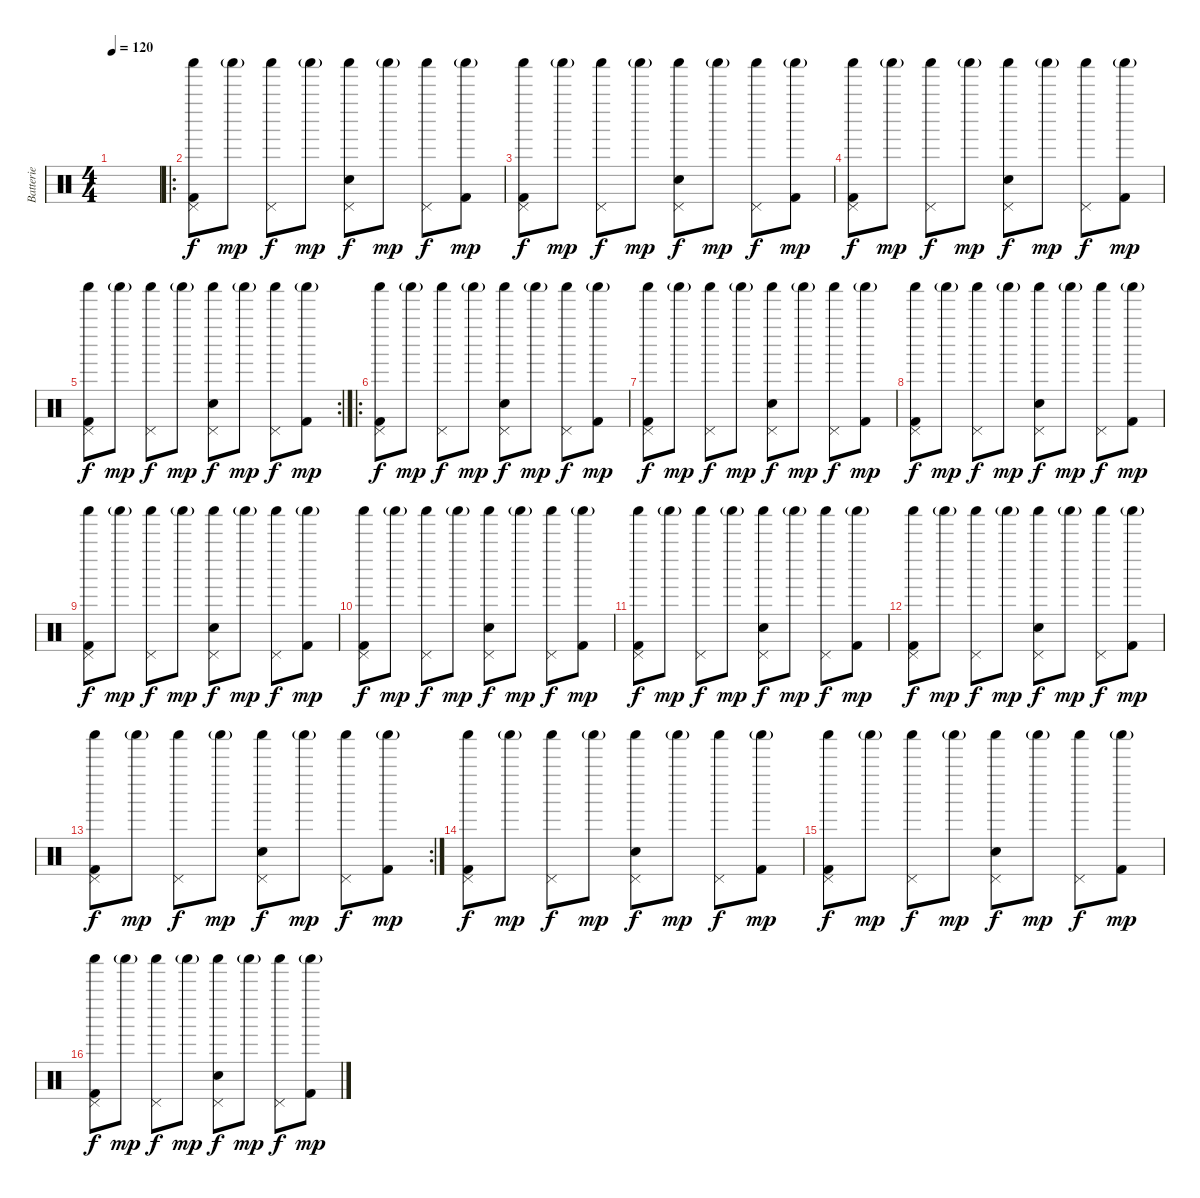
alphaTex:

\track ("Batterie" "Batterie") {instrument percussion}
\staff {score}
\articulation defaults
\ts (4 4)
\tempo 120
\clef neutral
\ks c
|
\ro
("Kick (hit) 2" "Shaker (hit)" "Pedal Hi-Hat (hit)").8 "Shaker (hit)"{g}.8{dy mp} ("Shaker (hit)" "Pedal Hi-Hat (hit)").8{dy f} "Shaker (hit)"{g}.8{dy mp} ("Electric Snare (hit)" "Shaker (hit)" "Pedal Hi-Hat (hit)").8{dy f} "Shaker (hit)"{g}.8{dy mp} ("Shaker (hit)" "Pedal Hi-Hat (hit)").8{dy f} ("Kick (hit) 2" "Shaker (hit)"{g}).8{dy mp} |
("Kick (hit) 2" "Shaker (hit)" "Pedal Hi-Hat (hit)").8{dy f} "Shaker (hit)"{g}.8{dy mp} ("Shaker (hit)" "Pedal Hi-Hat (hit)").8{dy f} "Shaker (hit)"{g}.8{dy mp} ("Electric Snare (hit)" "Shaker (hit)" "Pedal Hi-Hat (hit)").8{dy f} "Shaker (hit)"{g}.8{dy mp} ("Shaker (hit)" "Pedal Hi-Hat (hit)").8{dy f} ("Kick (hit) 2" "Shaker (hit)"{g}).8{dy mp} |
("Kick (hit) 2" "Shaker (hit)" "Pedal Hi-Hat (hit)").8{dy f} "Shaker (hit)"{g}.8{dy mp} ("Shaker (hit)" "Pedal Hi-Hat (hit)").8{dy f} "Shaker (hit)"{g}.8{dy mp} ("Electric Snare (hit)" "Shaker (hit)" "Pedal Hi-Hat (hit)").8{dy f} "Shaker (hit)"{g}.8{dy mp} ("Shaker (hit)" "Pedal Hi-Hat (hit)").8{dy f} ("Kick (hit) 2" "Shaker (hit)"{g}).8{dy mp} |
\rc 2
("Kick (hit) 2" "Shaker (hit)" "Pedal Hi-Hat (hit)").8{dy f} "Shaker (hit)"{g}.8{dy mp} ("Shaker (hit)" "Pedal Hi-Hat (hit)").8{dy f} "Shaker (hit)"{g}.8{dy mp} ("Electric Snare (hit)" "Shaker (hit)" "Pedal Hi-Hat (hit)").8{dy f} "Shaker (hit)"{g}.8{dy mp} ("Shaker (hit)" "Pedal Hi-Hat (hit)").8{dy f} ("Kick (hit) 2" "Shaker (hit)"{g}).8{dy mp} |
\ro
("Kick (hit) 2" "Shaker (hit)" "Pedal Hi-Hat (hit)").8{dy f} "Shaker (hit)"{g}.8{dy mp} ("Shaker (hit)" "Pedal Hi-Hat (hit)").8{dy f} "Shaker (hit)"{g}.8{dy mp} ("Electric Snare (hit)" "Shaker (hit)" "Pedal Hi-Hat (hit)").8{dy f} "Shaker (hit)"{g}.8{dy mp} ("Shaker (hit)" "Pedal Hi-Hat (hit)").8{dy f} ("Kick (hit) 2" "Shaker (hit)"{g}).8{dy mp} |
("Kick (hit) 2" "Shaker (hit)" "Pedal Hi-Hat (hit)").8{dy f} "Shaker (hit)"{g}.8{dy mp} ("Shaker (hit)" "Pedal Hi-Hat (hit)").8{dy f} "Shaker (hit)"{g}.8{dy mp} ("Electric Snare (hit)" "Shaker (hit)" "Pedal Hi-Hat (hit)").8{dy f} "Shaker (hit)"{g}.8{dy mp} ("Shaker (hit)" "Pedal Hi-Hat (hit)").8{dy f} ("Kick (hit) 2" "Shaker (hit)"{g}).8{dy mp} |
("Kick (hit) 2" "Shaker (hit)" "Pedal Hi-Hat (hit)").8{dy f} "Shaker (hit)"{g}.8{dy mp} ("Shaker (hit)" "Pedal Hi-Hat (hit)").8{dy f} "Shaker (hit)"{g}.8{dy mp} ("Electric Snare (hit)" "Shaker (hit)" "Pedal Hi-Hat (hit)").8{dy f} "Shaker (hit)"{g}.8{dy mp} ("Shaker (hit)" "Pedal Hi-Hat (hit)").8{dy f} ("Kick (hit) 2" "Shaker (hit)"{g}).8{dy mp} |
("Kick (hit) 2" "Shaker (hit)" "Pedal Hi-Hat (hit)").8{dy f} "Shaker (hit)"{g}.8{dy mp} ("Shaker (hit)" "Pedal Hi-Hat (hit)").8{dy f} "Shaker (hit)"{g}.8{dy mp} ("Electric Snare (hit)" "Shaker (hit)" "Pedal Hi-Hat (hit)").8{dy f} "Shaker (hit)"{g}.8{dy mp} ("Shaker (hit)" "Pedal Hi-Hat (hit)").8{dy f} ("Kick (hit) 2" "Shaker (hit)"{g}).8{dy mp} |
("Kick (hit) 2" "Shaker (hit)" "Pedal Hi-Hat (hit)").8{dy f} "Shaker (hit)"{g}.8{dy mp} ("Shaker (hit)" "Pedal Hi-Hat (hit)").8{dy f} "Shaker (hit)"{g}.8{dy mp} ("Electric Snare (hit)" "Shaker (hit)" "Pedal Hi-Hat (hit)").8{dy f} "Shaker (hit)"{g}.8{dy mp} ("Shaker (hit)" "Pedal Hi-Hat (hit)").8{dy f} ("Kick (hit) 2" "Shaker (hit)"{g}).8{dy mp} |
("Kick (hit) 2" "Shaker (hit)" "Pedal Hi-Hat (hit)").8{dy f} "Shaker (hit)"{g}.8{dy mp} ("Shaker (hit)" "Pedal Hi-Hat (hit)").8{dy f} "Shaker (hit)"{g}.8{dy mp} ("Electric Snare (hit)" "Shaker (hit)" "Pedal Hi-Hat (hit)").8{dy f} "Shaker (hit)"{g}.8{dy mp} ("Shaker (hit)" "Pedal Hi-Hat (hit)").8{dy f} ("Kick (hit) 2" "Shaker (hit)"{g}).8{dy mp} |
("Kick (hit) 2" "Shaker (hit)" "Pedal Hi-Hat (hit)").8{dy f} "Shaker (hit)"{g}.8{dy mp} ("Shaker (hit)" "Pedal Hi-Hat (hit)").8{dy f} "Shaker (hit)"{g}.8{dy mp} ("Electric Snare (hit)" "Shaker (hit)" "Pedal Hi-Hat (hit)").8{dy f} "Shaker (hit)"{g}.8{dy mp} ("Shaker (hit)" "Pedal Hi-Hat (hit)").8{dy f} ("Kick (hit) 2" "Shaker (hit)"{g}).8{dy mp} |
\rc 2
("Kick (hit) 2" "Shaker (hit)" "Pedal Hi-Hat (hit)").8{dy f} "Shaker (hit)"{g}.8{dy mp} ("Shaker (hit)" "Pedal Hi-Hat (hit)").8{dy f} "Shaker (hit)"{g}.8{dy mp} ("Electric Snare (hit)" "Shaker (hit)" "Pedal Hi-Hat (hit)").8{dy f} "Shaker (hit)"{g}.8{dy mp} ("Shaker (hit)" "Pedal Hi-Hat (hit)").8{dy f} ("Kick (hit) 2" "Shaker (hit)"{g}).8{dy mp} |
("Kick (hit) 2" "Shaker (hit)" "Pedal Hi-Hat (hit)").8{dy f} "Shaker (hit)"{g}.8{dy mp} ("Shaker (hit)" "Pedal Hi-Hat (hit)").8{dy f} "Shaker (hit)"{g}.8{dy mp} ("Electric Snare (hit)" "Shaker (hit)" "Pedal Hi-Hat (hit)").8{dy f} "Shaker (hit)"{g}.8{dy mp} ("Shaker (hit)" "Pedal Hi-Hat (hit)").8{dy f} ("Kick (hit) 2" "Shaker (hit)"{g}).8{dy mp} |
("Kick (hit) 2" "Shaker (hit)" "Pedal Hi-Hat (hit)").8{dy f} "Shaker (hit)"{g}.8{dy mp} ("Shaker (hit)" "Pedal Hi-Hat (hit)").8{dy f} "Shaker (hit)"{g}.8{dy mp} ("Electric Snare (hit)" "Shaker (hit)" "Pedal Hi-Hat (hit)").8{dy f} "Shaker (hit)"{g}.8{dy mp} ("Shaker (hit)" "Pedal Hi-Hat (hit)").8{dy f} ("Kick (hit) 2" "Shaker (hit)"{g}).8{dy mp} |
("Kick (hit) 2" "Shaker (hit)" "Pedal Hi-Hat (hit)").8{dy f} "Shaker (hit)"{g}.8{dy mp} ("Shaker (hit)" "Pedal Hi-Hat (hit)").8{dy f} "Shaker (hit)"{g}.8{dy mp} ("Electric Snare (hit)" "Shaker (hit)" "Pedal Hi-Hat (hit)").8{dy f} "Shaker (hit)"{g}.8{dy mp} ("Shaker (hit)" "Pedal Hi-Hat (hit)").8{dy f} ("Kick (hit) 2" "Shaker (hit)"{g}).8{dy mp}
